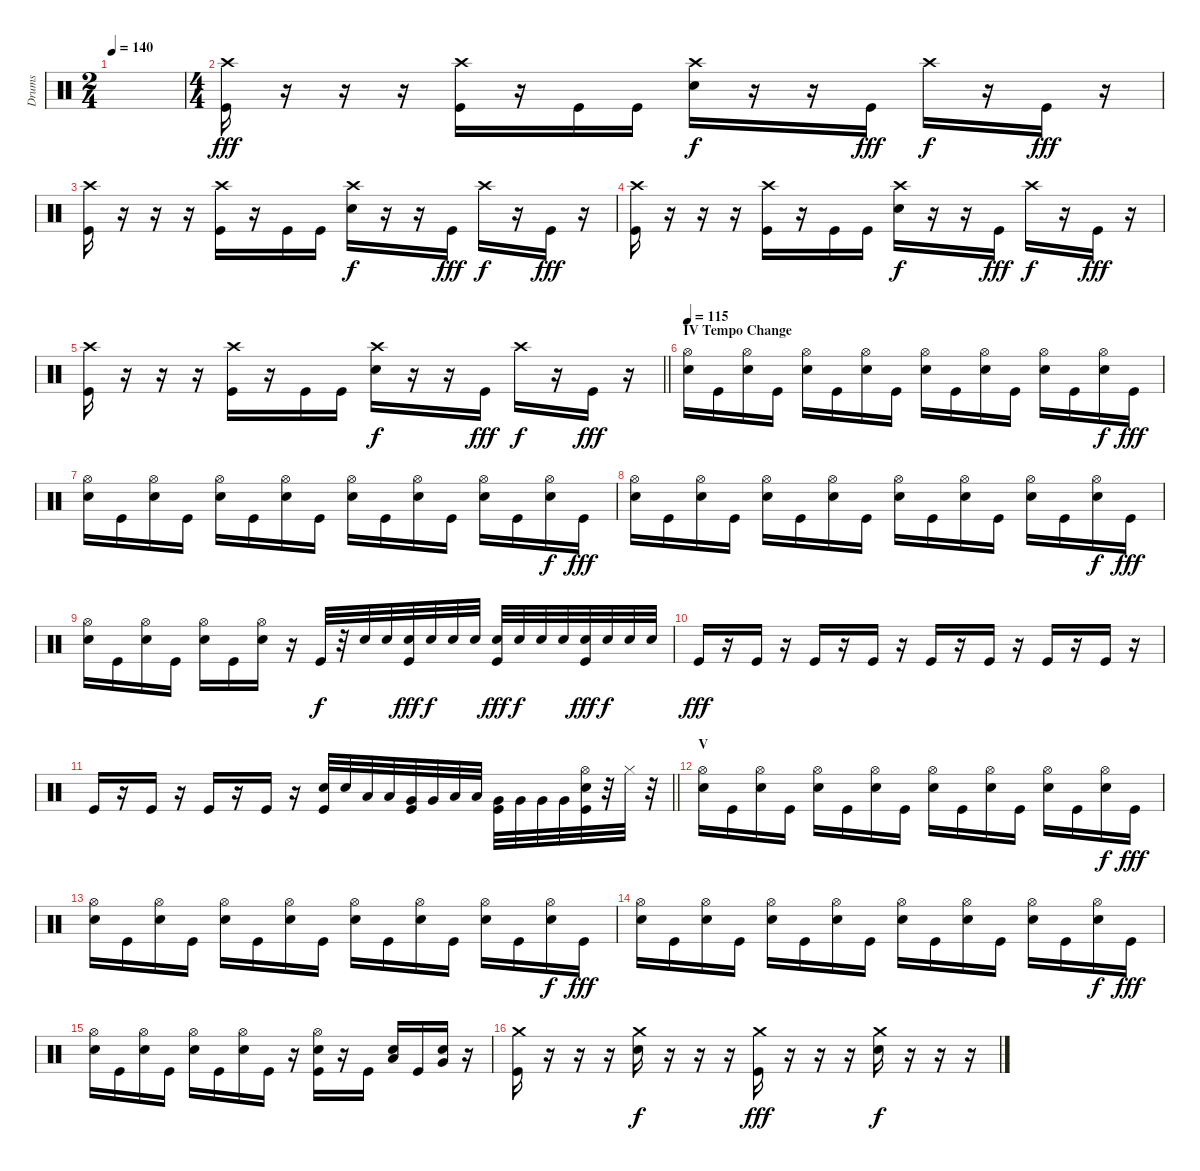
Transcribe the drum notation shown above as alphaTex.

\track ("Drums" "Drums") {instrument percussion}
\staff {score}
\articulation defaults
\ts (2 4)
\tempo 140
\clef neutral
\ks c
|
\ts (4 4)
("Crash high (hit)" "Kick (hit)").16{dy fff} r.16 r.16 r.16 ("Crash high (hit)" "Kick (hit)").16 r.16 "Kick (hit)".16 "Kick (hit)".16 ("Crash high (hit)" "Electric Snare (hit)").16{dy f} r.16 r.16 "Kick (hit)".16{dy fff} "Crash high (hit)".16{dy f} r.16 "Kick (hit)".16{dy fff} r.16 |
("Crash high (hit)" "Kick (hit)").16 r.16 r.16 r.16 ("Crash high (hit)" "Kick (hit)").16 r.16 "Kick (hit)".16 "Kick (hit)".16 ("Crash high (hit)" "Electric Snare (hit)").16{dy f} r.16 r.16 "Kick (hit)".16{dy fff} "Crash high (hit)".16{dy f} r.16 "Kick (hit)".16{dy fff} r.16 |
("Crash high (hit)" "Kick (hit)").16 r.16 r.16 r.16 ("Crash high (hit)" "Kick (hit)").16 r.16 "Kick (hit)".16 "Kick (hit)".16 ("Crash high (hit)" "Electric Snare (hit)").16{dy f} r.16 r.16 "Kick (hit)".16{dy fff} "Crash high (hit)".16{dy f} r.16 "Kick (hit)".16{dy fff} r.16 |
\barLineRight lightlight
("Crash high (hit)" "Kick (hit)").16 r.16 r.16 r.16 ("Crash high (hit)" "Kick (hit)").16 r.16 "Kick (hit)".16 "Kick (hit)".16 ("Crash high (hit)" "Electric Snare (hit)").16{dy f} r.16 r.16 "Kick (hit)".16{dy fff} "Crash high (hit)".16{dy f} r.16 "Kick (hit)".16{dy fff} r.16 |
\section ("" "IV Tempo Change")
\tempo 115
("Hi-Hat (open)" "Electric Snare (hit)").16 "Kick (hit)".16 ("Hi-Hat (open)" "Electric Snare (hit)").16 "Kick (hit)".16 ("Hi-Hat (open)" "Electric Snare (hit)").16 "Kick (hit)".16 ("Hi-Hat (open)" "Electric Snare (hit)").16 "Kick (hit)".16 ("Hi-Hat (open)" "Electric Snare (hit)").16 "Kick (hit)".16 ("Hi-Hat (open)" "Electric Snare (hit)").16 "Kick (hit)".16 ("Hi-Hat (open)" "Electric Snare (hit)").16 "Kick (hit)".16 ("Hi-Hat (open)" "Electric Snare (hit)").16{dy f} "Kick (hit)".16{dy fff} |
("Hi-Hat (open)" "Electric Snare (hit)").16 "Kick (hit)".16 ("Hi-Hat (open)" "Electric Snare (hit)").16 "Kick (hit)".16 ("Hi-Hat (open)" "Electric Snare (hit)").16 "Kick (hit)".16 ("Hi-Hat (open)" "Electric Snare (hit)").16 "Kick (hit)".16 ("Hi-Hat (open)" "Electric Snare (hit)").16 "Kick (hit)".16 ("Hi-Hat (open)" "Electric Snare (hit)").16 "Kick (hit)".16 ("Hi-Hat (open)" "Electric Snare (hit)").16 "Kick (hit)".16 ("Hi-Hat (open)" "Electric Snare (hit)").16{dy f} "Kick (hit)".16{dy fff} |
("Hi-Hat (open)" "Electric Snare (hit)").16 "Kick (hit)".16 ("Hi-Hat (open)" "Electric Snare (hit)").16 "Kick (hit)".16 ("Hi-Hat (open)" "Electric Snare (hit)").16 "Kick (hit)".16 ("Hi-Hat (open)" "Electric Snare (hit)").16 "Kick (hit)".16 ("Hi-Hat (open)" "Electric Snare (hit)").16 "Kick (hit)".16 ("Hi-Hat (open)" "Electric Snare (hit)").16 "Kick (hit)".16 ("Hi-Hat (open)" "Electric Snare (hit)").16 "Kick (hit)".16 ("Hi-Hat (open)" "Electric Snare (hit)").16{dy f} "Kick (hit)".16{dy fff} |
("Hi-Hat (open)" "Electric Snare (hit)").16 "Kick (hit)".16 ("Hi-Hat (open)" "Electric Snare (hit)").16 "Kick (hit)".16 ("Hi-Hat (open)" "Electric Snare (hit)").16 "Kick (hit)".16 ("Hi-Hat (open)" "Electric Snare (hit)").16 r.16 "Kick (hit)".32{dy f} r.32 "Electric Snare (hit)".32 "Electric Snare (hit)".32 ("Electric Snare (hit)" "Kick (hit)").32{dy fff} "Electric Snare (hit)".32{dy f} "Electric Snare (hit)".32 "Electric Snare (hit)".32 ("Electric Snare (hit)" "Kick (hit)").32{dy fff} "Electric Snare (hit)".32{dy f} "Electric Snare (hit)".32 "Electric Snare (hit)".32 ("Electric Snare (hit)" "Kick (hit)").32{dy fff} "Electric Snare (hit)".32{dy f} "Electric Snare (hit)".32 "Electric Snare (hit)".32 |
"Kick (hit)".16{dy fff} r.16 "Kick (hit)".16 r.16 "Kick (hit)".16 r.16 "Kick (hit)".16 r.16 "Kick (hit)".16 r.16 "Kick (hit)".16 r.16 "Kick (hit)".16 r.16 "Kick (hit)".16 r.16 |
\barLineRight lightlight "Kick (hit)".16
r.16 "Kick (hit)".16 r.16 "Kick (hit)".16 r.16 "Kick (hit)".16 r.16 ("Electric Snare (hit)" "Kick (hit)").32 "Electric Snare (hit)".32 "Low Tom (hit)".32 "Low Tom (hit)".32 ("Very Low Tom (hit)" "Kick (hit)").32 "Very Low Tom (hit)".32 "Low Tom (hit)".32 "Low Tom (hit)".32 ("Very Low Tom (hit)" "Kick (hit)").32 "Very Low Tom (hit)".32 "Very Low Tom (hit)".32 "Very Low Tom (hit)".32 ("Hi-Hat (open)" "Electric Snare (hit)" "Kick (hit)").32 r.32 "Hi-Hat (closed)".32 r.32 |
\section ("" "V")
("Hi-Hat (open)" "Electric Snare (hit)").16 "Kick (hit)".16 ("Hi-Hat (open)" "Electric Snare (hit)").16 "Kick (hit)".16 ("Hi-Hat (open)" "Electric Snare (hit)").16 "Kick (hit)".16 ("Hi-Hat (open)" "Electric Snare (hit)").16 "Kick (hit)".16 ("Hi-Hat (open)" "Electric Snare (hit)").16 "Kick (hit)".16 ("Hi-Hat (open)" "Electric Snare (hit)").16 "Kick (hit)".16 ("Hi-Hat (open)" "Electric Snare (hit)").16 "Kick (hit)".16 ("Hi-Hat (open)" "Electric Snare (hit)").16{dy f} "Kick (hit)".16{dy fff} |
("Hi-Hat (open)" "Electric Snare (hit)").16 "Kick (hit)".16 ("Hi-Hat (open)" "Electric Snare (hit)").16 "Kick (hit)".16 ("Hi-Hat (open)" "Electric Snare (hit)").16 "Kick (hit)".16 ("Hi-Hat (open)" "Electric Snare (hit)").16 "Kick (hit)".16 ("Hi-Hat (open)" "Electric Snare (hit)").16 "Kick (hit)".16 ("Hi-Hat (open)" "Electric Snare (hit)").16 "Kick (hit)".16 ("Hi-Hat (open)" "Electric Snare (hit)").16 "Kick (hit)".16 ("Hi-Hat (open)" "Electric Snare (hit)").16{dy f} "Kick (hit)".16{dy fff} |
("Hi-Hat (open)" "Electric Snare (hit)").16 "Kick (hit)".16 ("Hi-Hat (open)" "Electric Snare (hit)").16 "Kick (hit)".16 ("Hi-Hat (open)" "Electric Snare (hit)").16 "Kick (hit)".16 ("Hi-Hat (open)" "Electric Snare (hit)").16 "Kick (hit)".16 ("Hi-Hat (open)" "Electric Snare (hit)").16 "Kick (hit)".16 ("Hi-Hat (open)" "Electric Snare (hit)").16 "Kick (hit)".16 ("Hi-Hat (open)" "Electric Snare (hit)").16 "Kick (hit)".16 ("Hi-Hat (open)" "Electric Snare (hit)").16{dy f} "Kick (hit)".16{dy fff} |
("Hi-Hat (open)" "Electric Snare (hit)").16 "Kick (hit)".16 ("Hi-Hat (open)" "Electric Snare (hit)").16 "Kick (hit)".16 ("Hi-Hat (open)" "Electric Snare (hit)").16 "Kick (hit)".16 ("Hi-Hat (open)" "Electric Snare (hit)").16 "Kick (hit)".16 r.16 ("Hi-Hat (open)" "Electric Snare (hit)" "Kick (hit)").16 r.16 "Kick (hit)".16 ("Electric Snare (hit)" "Low Floor Tom (hit)").16 "Kick (hit)".16 ("Electric Snare (hit)" "Very Low Tom (hit)").16 r.16 |
("Crash medium (hit)" "Kick (hit)").16 r.16 r.16 r.16 ("Crash medium (hit)" "Electric Snare (hit)").16{dy f} r.16 r.16 r.16 ("Crash medium (hit)" "Kick (hit)").16{dy fff} r.16 r.16 r.16 ("Crash medium (hit)" "Electric Snare (hit)").16{dy f} r.16 r.16 r.16
